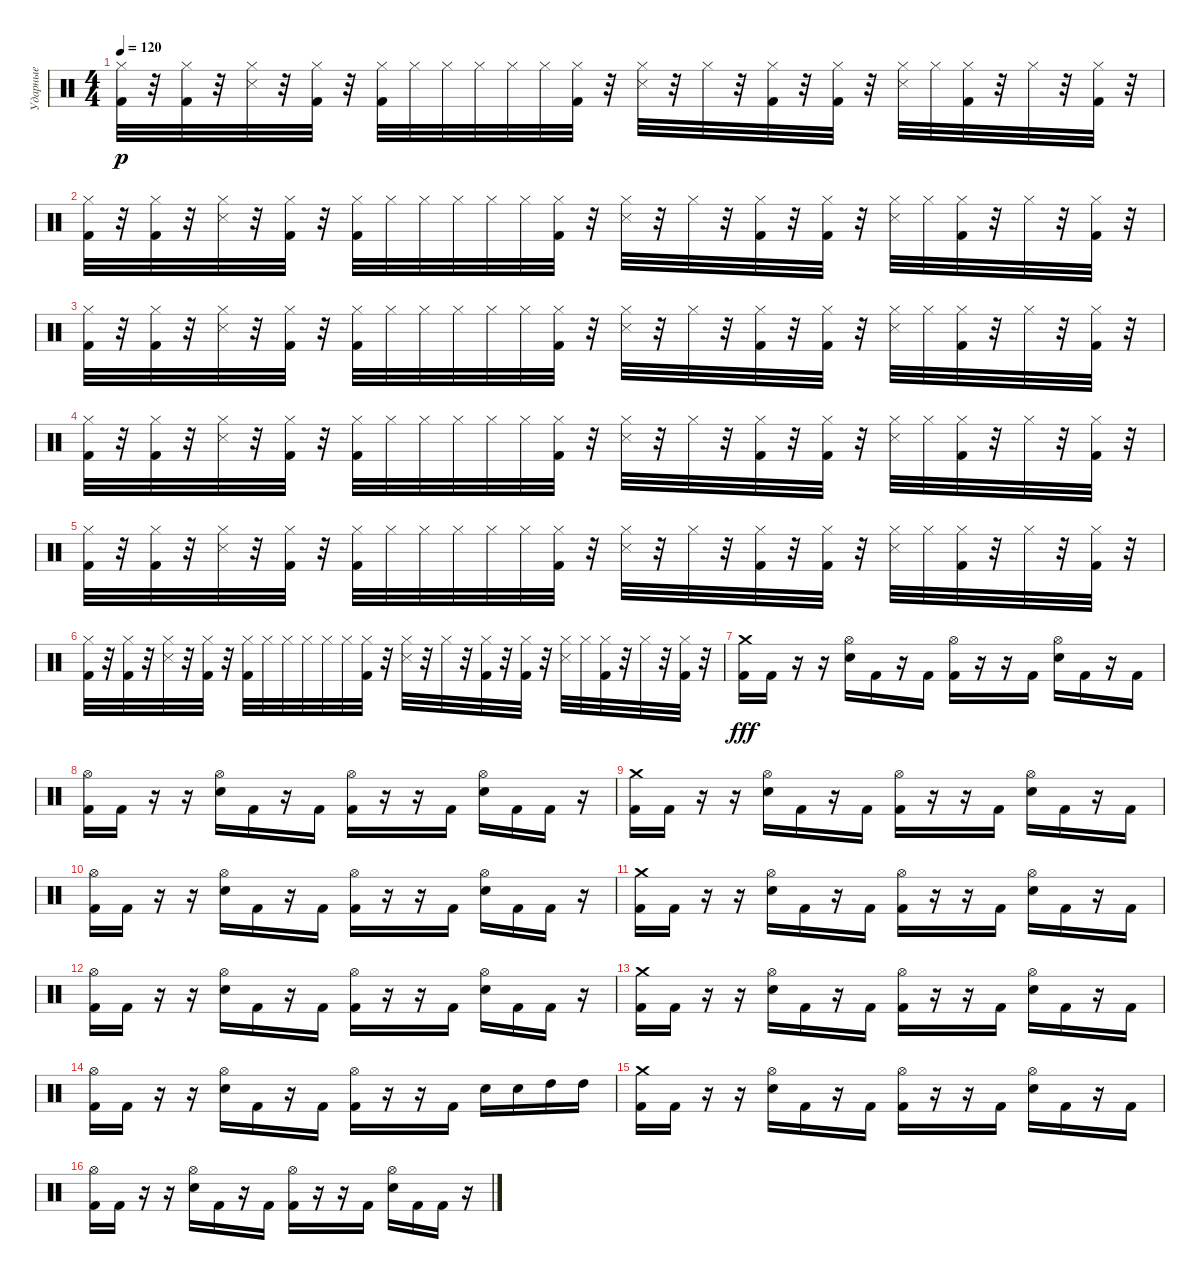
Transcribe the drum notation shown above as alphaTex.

\track ("Ударные" "Ударные") {instrument percussion}
\staff {score}
\articulation defaults
\ts (4 4)
\tempo 120
\clef neutral
\ks c
("Hi-Hat (closed)" "Kick (hit) 2").32{dy p} r.32 ("Hi-Hat (closed)" "Kick (hit) 2").32 r.32 ("Hi-Hat (closed)" "Metronome (hit)").32 r.32 ("Hi-Hat (closed)" "Kick (hit) 2").32 r.32 ("Hi-Hat (closed)" "Kick (hit) 2").32 "Hi-Hat (closed)".32 "Hi-Hat (closed)".32 "Hi-Hat (closed)".32 "Hi-Hat (closed)".32 "Hi-Hat (closed)".32 ("Hi-Hat (closed)" "Kick (hit) 2").32 r.32 ("Hi-Hat (closed)" "Metronome (hit)").32 r.32 "Hi-Hat (closed)".32 r.32 ("Hi-Hat (closed)" "Kick (hit) 2").32 r.32 ("Hi-Hat (closed)" "Kick (hit) 2").32 r.32 ("Hi-Hat (closed)" "Metronome (hit)").32 "Hi-Hat (closed)".32 ("Hi-Hat (closed)" "Kick (hit) 2").32 r.32 "Hi-Hat (closed)".32 r.32 ("Hi-Hat (closed)" "Kick (hit) 2").32 r.32 |
("Hi-Hat (closed)" "Kick (hit) 2").32 r.32 ("Hi-Hat (closed)" "Kick (hit) 2").32 r.32 ("Hi-Hat (closed)" "Metronome (hit)").32 r.32 ("Hi-Hat (closed)" "Kick (hit) 2").32 r.32 ("Hi-Hat (closed)" "Kick (hit) 2").32 "Hi-Hat (closed)".32 "Hi-Hat (closed)".32 "Hi-Hat (closed)".32 "Hi-Hat (closed)".32 "Hi-Hat (closed)".32 ("Hi-Hat (closed)" "Kick (hit) 2").32 r.32 ("Hi-Hat (closed)" "Metronome (hit)").32 r.32 "Hi-Hat (closed)".32 r.32 ("Hi-Hat (closed)" "Kick (hit) 2").32 r.32 ("Hi-Hat (closed)" "Kick (hit) 2").32 r.32 ("Hi-Hat (closed)" "Metronome (hit)").32 "Hi-Hat (closed)".32 ("Hi-Hat (closed)" "Kick (hit) 2").32 r.32 "Hi-Hat (closed)".32 r.32 ("Hi-Hat (closed)" "Kick (hit) 2").32 r.32 |
("Hi-Hat (closed)" "Kick (hit) 2").32 r.32 ("Hi-Hat (closed)" "Kick (hit) 2").32 r.32 ("Hi-Hat (closed)" "Metronome (hit)").32 r.32 ("Hi-Hat (closed)" "Kick (hit) 2").32 r.32 ("Hi-Hat (closed)" "Kick (hit) 2").32 "Hi-Hat (closed)".32 "Hi-Hat (closed)".32 "Hi-Hat (closed)".32 "Hi-Hat (closed)".32 "Hi-Hat (closed)".32 ("Hi-Hat (closed)" "Kick (hit) 2").32 r.32 ("Hi-Hat (closed)" "Metronome (hit)").32 r.32 "Hi-Hat (closed)".32 r.32 ("Hi-Hat (closed)" "Kick (hit) 2").32 r.32 ("Hi-Hat (closed)" "Kick (hit) 2").32 r.32 ("Hi-Hat (closed)" "Metronome (hit)").32 "Hi-Hat (closed)".32 ("Hi-Hat (closed)" "Kick (hit) 2").32 r.32 "Hi-Hat (closed)".32 r.32 ("Hi-Hat (closed)" "Kick (hit) 2").32 r.32 |
("Hi-Hat (closed)" "Kick (hit) 2").32 r.32 ("Hi-Hat (closed)" "Kick (hit) 2").32 r.32 ("Hi-Hat (closed)" "Metronome (hit)").32 r.32 ("Hi-Hat (closed)" "Kick (hit) 2").32 r.32 ("Hi-Hat (closed)" "Kick (hit) 2").32 "Hi-Hat (closed)".32 "Hi-Hat (closed)".32 "Hi-Hat (closed)".32 "Hi-Hat (closed)".32 "Hi-Hat (closed)".32 ("Hi-Hat (closed)" "Kick (hit) 2").32 r.32 ("Hi-Hat (closed)" "Metronome (hit)").32 r.32 "Hi-Hat (closed)".32 r.32 ("Hi-Hat (closed)" "Kick (hit) 2").32 r.32 ("Hi-Hat (closed)" "Kick (hit) 2").32 r.32 ("Hi-Hat (closed)" "Metronome (hit)").32 "Hi-Hat (closed)".32 ("Hi-Hat (closed)" "Kick (hit) 2").32 r.32 "Hi-Hat (closed)".32 r.32 ("Hi-Hat (closed)" "Kick (hit) 2").32 r.32 |
("Hi-Hat (closed)" "Kick (hit) 2").32 r.32 ("Hi-Hat (closed)" "Kick (hit) 2").32 r.32 ("Hi-Hat (closed)" "Metronome (hit)").32 r.32 ("Hi-Hat (closed)" "Kick (hit) 2").32 r.32 ("Hi-Hat (closed)" "Kick (hit) 2").32 "Hi-Hat (closed)".32 "Hi-Hat (closed)".32 "Hi-Hat (closed)".32 "Hi-Hat (closed)".32 "Hi-Hat (closed)".32 ("Hi-Hat (closed)" "Kick (hit) 2").32 r.32 ("Hi-Hat (closed)" "Metronome (hit)").32 r.32 "Hi-Hat (closed)".32 r.32 ("Hi-Hat (closed)" "Kick (hit) 2").32 r.32 ("Hi-Hat (closed)" "Kick (hit) 2").32 r.32 ("Hi-Hat (closed)" "Metronome (hit)").32 "Hi-Hat (closed)".32 ("Hi-Hat (closed)" "Kick (hit) 2").32 r.32 "Hi-Hat (closed)".32 r.32 ("Hi-Hat (closed)" "Kick (hit) 2").32 r.32 |
("Hi-Hat (closed)" "Kick (hit) 2").32 r.32 ("Hi-Hat (closed)" "Kick (hit) 2").32 r.32 ("Hi-Hat (closed)" "Metronome (hit)").32 r.32 ("Hi-Hat (closed)" "Kick (hit) 2").32 r.32 ("Hi-Hat (closed)" "Kick (hit) 2").32 "Hi-Hat (closed)".32 "Hi-Hat (closed)".32 "Hi-Hat (closed)".32 "Hi-Hat (closed)".32 "Hi-Hat (closed)".32 ("Hi-Hat (closed)" "Kick (hit) 2").32 r.32 ("Hi-Hat (closed)" "Metronome (hit)").32 r.32 "Hi-Hat (closed)".32 r.32 ("Hi-Hat (closed)" "Kick (hit) 2").32 r.32 ("Hi-Hat (closed)" "Kick (hit) 2").32 r.32 ("Hi-Hat (closed)" "Metronome (hit)").32 "Hi-Hat (closed)".32 ("Hi-Hat (closed)" "Kick (hit) 2").32 r.32 "Hi-Hat (closed)".32 r.32 ("Hi-Hat (closed)" "Kick (hit) 2").32 r.32 |
("Crash medium (hit)" "Kick (hit) 2").16{dy fff} "Kick (hit) 2".16 r.16 r.16 ("Hi-Hat (open)" "Electric Snare (hit)").16 "Kick (hit) 2".16 r.16 "Kick (hit) 2".16 ("Hi-Hat (open)" "Kick (hit) 2").16 r.16 r.16 "Kick (hit) 2".16 ("Hi-Hat (open)" "Electric Snare (hit)").16 "Kick (hit) 2".16 r.16 "Kick (hit) 2".16 |
("Hi-Hat (open)" "Kick (hit) 2").16 "Kick (hit) 2".16 r.16 r.16 ("Hi-Hat (open)" "Electric Snare (hit)").16 "Kick (hit) 2".16 r.16 "Kick (hit) 2".16 ("Hi-Hat (open)" "Kick (hit) 2").16 r.16 r.16 "Kick (hit) 2".16 ("Hi-Hat (open)" "Electric Snare (hit)").16 "Kick (hit) 2".16 "Kick (hit) 2".16 r.16 |
("Crash medium (hit)" "Kick (hit) 2").16 "Kick (hit) 2".16 r.16 r.16 ("Hi-Hat (open)" "Electric Snare (hit)").16 "Kick (hit) 2".16 r.16 "Kick (hit) 2".16 ("Hi-Hat (open)" "Kick (hit) 2").16 r.16 r.16 "Kick (hit) 2".16 ("Hi-Hat (open)" "Electric Snare (hit)").16 "Kick (hit) 2".16 r.16 "Kick (hit) 2".16 |
("Hi-Hat (open)" "Kick (hit) 2").16 "Kick (hit) 2".16 r.16 r.16 ("Hi-Hat (open)" "Electric Snare (hit)").16 "Kick (hit) 2".16 r.16 "Kick (hit) 2".16 ("Hi-Hat (open)" "Kick (hit) 2").16 r.16 r.16 "Kick (hit) 2".16 ("Hi-Hat (open)" "Electric Snare (hit)").16 "Kick (hit) 2".16 "Kick (hit) 2".16 r.16 |
("Crash medium (hit)" "Kick (hit) 2").16 "Kick (hit) 2".16 r.16 r.16 ("Hi-Hat (open)" "Electric Snare (hit)").16 "Kick (hit) 2".16 r.16 "Kick (hit) 2".16 ("Hi-Hat (open)" "Kick (hit) 2").16 r.16 r.16 "Kick (hit) 2".16 ("Hi-Hat (open)" "Electric Snare (hit)").16 "Kick (hit) 2".16 r.16 "Kick (hit) 2".16 |
("Hi-Hat (open)" "Kick (hit) 2").16 "Kick (hit) 2".16 r.16 r.16 ("Hi-Hat (open)" "Electric Snare (hit)").16 "Kick (hit) 2".16 r.16 "Kick (hit) 2".16 ("Hi-Hat (open)" "Kick (hit) 2").16 r.16 r.16 "Kick (hit) 2".16 ("Hi-Hat (open)" "Electric Snare (hit)").16 "Kick (hit) 2".16 "Kick (hit) 2".16 r.16 |
("Crash medium (hit)" "Kick (hit) 2").16 "Kick (hit) 2".16 r.16 r.16 ("Hi-Hat (open)" "Electric Snare (hit)").16 "Kick (hit) 2".16 r.16 "Kick (hit) 2".16 ("Hi-Hat (open)" "Kick (hit) 2").16 r.16 r.16 "Kick (hit) 2".16 ("Hi-Hat (open)" "Electric Snare (hit)").16 "Kick (hit) 2".16 r.16 "Kick (hit) 2".16 |
("Hi-Hat (open)" "Kick (hit) 2").16 "Kick (hit) 2".16 r.16 r.16 ("Hi-Hat (open)" "Electric Snare (hit)").16 "Kick (hit) 2".16 r.16 "Kick (hit) 2".16 ("Hi-Hat (open)" "Kick (hit) 2").16 r.16 r.16 "Kick (hit) 2".16 "Electric Snare (hit)".16 "Electric Snare (hit)".16 "High Tom (hit)".16 "High Tom (hit)".16 |
("Crash medium (hit)" "Kick (hit) 2").16 "Kick (hit) 2".16 r.16 r.16 ("Hi-Hat (open)" "Electric Snare (hit)").16 "Kick (hit) 2".16 r.16 "Kick (hit) 2".16 ("Hi-Hat (open)" "Kick (hit) 2").16 r.16 r.16 "Kick (hit) 2".16 ("Hi-Hat (open)" "Electric Snare (hit)").16 "Kick (hit) 2".16 r.16 "Kick (hit) 2".16 |
("Hi-Hat (open)" "Kick (hit) 2").16 "Kick (hit) 2".16 r.16 r.16 ("Hi-Hat (open)" "Electric Snare (hit)").16 "Kick (hit) 2".16 r.16 "Kick (hit) 2".16 ("Hi-Hat (open)" "Kick (hit) 2").16 r.16 r.16 "Kick (hit) 2".16 ("Hi-Hat (open)" "Electric Snare (hit)").16 "Kick (hit) 2".16 "Kick (hit) 2".16 r.16
